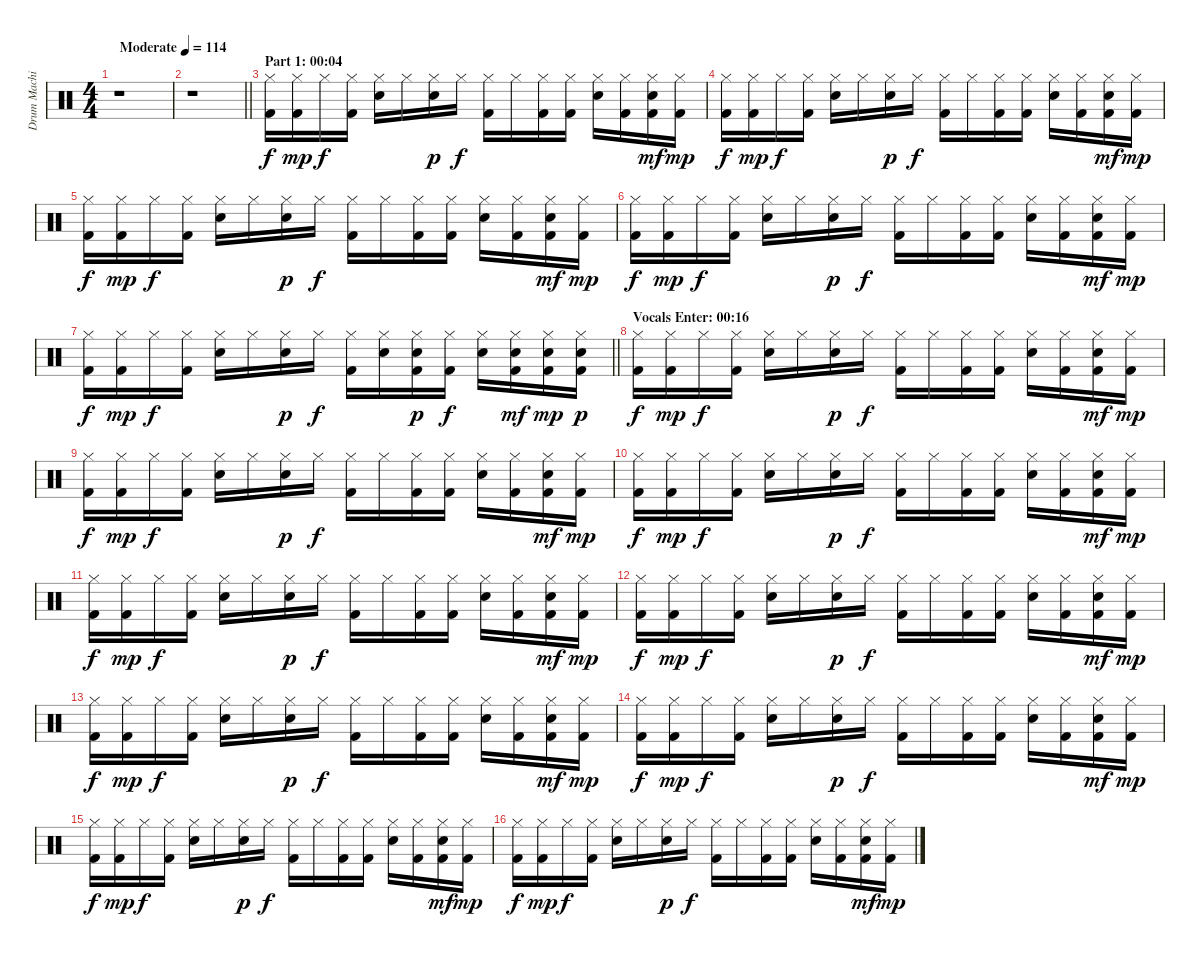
\track ("Drum Machine" "Drum Machi") {instrument percussion}
\staff {score}
\articulation defaults
\ts (4 4)
\tempo (114 "Moderate")
\clef neutral
\ks c
r.1{dy f} |
\barLineRight lightlight
r.1 |
\section ("" "Part 1: 00:04")
("Hi-Hat (closed)" "Kick (hit) 2").16 ("Hi-Hat (closed)" "Kick (hit) 2").16{dy mp} "Hi-Hat (closed)".16{dy f} ("Hi-Hat (closed)" "Kick (hit) 2").16 ("Hi-Hat (closed)" "Electric Snare (hit)").16 "Hi-Hat (closed)".16 ("Hi-Hat (closed)" "Electric Snare (hit)").16{dy p} "Hi-Hat (closed)".16{dy f} ("Hi-Hat (closed)" "Kick (hit) 2").16 "Hi-Hat (closed)".16 ("Hi-Hat (closed)" "Kick (hit) 2").16 ("Hi-Hat (closed)" "Kick (hit) 2").16 ("Hi-Hat (closed)" "Electric Snare (hit)").16 ("Hi-Hat (closed)" "Kick (hit) 2").16 ("Hi-Hat (closed)" "Electric Snare (hit)" "Kick (hit) 2").16{dy mf} ("Hi-Hat (closed)" "Kick (hit) 2").16{dy mp} |
("Hi-Hat (closed)" "Kick (hit) 2").16{dy f} ("Hi-Hat (closed)" "Kick (hit) 2").16{dy mp} "Hi-Hat (closed)".16{dy f} ("Hi-Hat (closed)" "Kick (hit) 2").16 ("Hi-Hat (closed)" "Electric Snare (hit)").16 "Hi-Hat (closed)".16 ("Hi-Hat (closed)" "Electric Snare (hit)").16{dy p} "Hi-Hat (closed)".16{dy f} ("Hi-Hat (closed)" "Kick (hit) 2").16 "Hi-Hat (closed)".16 ("Hi-Hat (closed)" "Kick (hit) 2").16 ("Hi-Hat (closed)" "Kick (hit) 2").16 ("Hi-Hat (closed)" "Electric Snare (hit)").16 ("Hi-Hat (closed)" "Kick (hit) 2").16 ("Hi-Hat (closed)" "Electric Snare (hit)" "Kick (hit) 2").16{dy mf} ("Hi-Hat (closed)" "Kick (hit) 2").16{dy mp} |
("Hi-Hat (closed)" "Kick (hit) 2").16{dy f} ("Hi-Hat (closed)" "Kick (hit) 2").16{dy mp} "Hi-Hat (closed)".16{dy f} ("Hi-Hat (closed)" "Kick (hit) 2").16 ("Hi-Hat (closed)" "Electric Snare (hit)").16 "Hi-Hat (closed)".16 ("Hi-Hat (closed)" "Electric Snare (hit)").16{dy p} "Hi-Hat (closed)".16{dy f} ("Hi-Hat (closed)" "Kick (hit) 2").16 "Hi-Hat (closed)".16 ("Hi-Hat (closed)" "Kick (hit) 2").16 ("Hi-Hat (closed)" "Kick (hit) 2").16 ("Hi-Hat (closed)" "Electric Snare (hit)").16 ("Hi-Hat (closed)" "Kick (hit) 2").16 ("Hi-Hat (closed)" "Electric Snare (hit)" "Kick (hit) 2").16{dy mf} ("Hi-Hat (closed)" "Kick (hit) 2").16{dy mp} |
("Hi-Hat (closed)" "Kick (hit) 2").16{dy f} ("Hi-Hat (closed)" "Kick (hit) 2").16{dy mp} "Hi-Hat (closed)".16{dy f} ("Hi-Hat (closed)" "Kick (hit) 2").16 ("Hi-Hat (closed)" "Electric Snare (hit)").16 "Hi-Hat (closed)".16 ("Hi-Hat (closed)" "Electric Snare (hit)").16{dy p} "Hi-Hat (closed)".16{dy f} ("Hi-Hat (closed)" "Kick (hit) 2").16 "Hi-Hat (closed)".16 ("Hi-Hat (closed)" "Kick (hit) 2").16 ("Hi-Hat (closed)" "Kick (hit) 2").16 ("Hi-Hat (closed)" "Electric Snare (hit)").16 ("Hi-Hat (closed)" "Kick (hit) 2").16 ("Hi-Hat (closed)" "Electric Snare (hit)" "Kick (hit) 2").16{dy mf} ("Hi-Hat (closed)" "Kick (hit) 2").16{dy mp} |
\barLineRight lightlight
("Hi-Hat (closed)" "Kick (hit) 2").16{dy f} ("Hi-Hat (closed)" "Kick (hit) 2").16{dy mp} "Hi-Hat (closed)".16{dy f} ("Hi-Hat (closed)" "Kick (hit) 2").16 ("Hi-Hat (closed)" "Electric Snare (hit)").16 "Hi-Hat (closed)".16 ("Hi-Hat (closed)" "Electric Snare (hit)").16{dy p} "Hi-Hat (closed)".16{dy f} ("Hi-Hat (closed)" "Kick (hit) 2").16 ("Hi-Hat (closed)" "Electric Snare (hit)").16 ("Hi-Hat (closed)" "Electric Snare (hit)" "Kick (hit) 2").16{dy p} ("Hi-Hat (closed)" "Kick (hit) 2").16{dy f} ("Hi-Hat (closed)" "Electric Snare (hit)").16 ("Hi-Hat (closed)" "Electric Snare (hit)" "Kick (hit) 2").16{dy mf} ("Hi-Hat (closed)" "Electric Snare (hit)" "Kick (hit) 2").16{dy mp} ("Hi-Hat (closed)" "Electric Snare (hit)" "Kick (hit) 2").16{dy p} |
\section ("" "Vocals Enter: 00:16")
("Hi-Hat (closed)" "Kick (hit) 2").16{dy f} ("Hi-Hat (closed)" "Kick (hit) 2").16{dy mp} "Hi-Hat (closed)".16{dy f} ("Hi-Hat (closed)" "Kick (hit) 2").16 ("Hi-Hat (closed)" "Electric Snare (hit)").16 "Hi-Hat (closed)".16 ("Hi-Hat (closed)" "Electric Snare (hit)").16{dy p} "Hi-Hat (closed)".16{dy f} ("Hi-Hat (closed)" "Kick (hit) 2").16 "Hi-Hat (closed)".16 ("Hi-Hat (closed)" "Kick (hit) 2").16 ("Hi-Hat (closed)" "Kick (hit) 2").16 ("Hi-Hat (closed)" "Electric Snare (hit)").16 ("Hi-Hat (closed)" "Kick (hit) 2").16 ("Hi-Hat (closed)" "Electric Snare (hit)" "Kick (hit) 2").16{dy mf} ("Hi-Hat (closed)" "Kick (hit) 2").16{dy mp} |
("Hi-Hat (closed)" "Kick (hit) 2").16{dy f} ("Hi-Hat (closed)" "Kick (hit) 2").16{dy mp} "Hi-Hat (closed)".16{dy f} ("Hi-Hat (closed)" "Kick (hit) 2").16 ("Hi-Hat (closed)" "Electric Snare (hit)").16 "Hi-Hat (closed)".16 ("Hi-Hat (closed)" "Electric Snare (hit)").16{dy p} "Hi-Hat (closed)".16{dy f} ("Hi-Hat (closed)" "Kick (hit) 2").16 "Hi-Hat (closed)".16 ("Hi-Hat (closed)" "Kick (hit) 2").16 ("Hi-Hat (closed)" "Kick (hit) 2").16 ("Hi-Hat (closed)" "Electric Snare (hit)").16 ("Hi-Hat (closed)" "Kick (hit) 2").16 ("Hi-Hat (closed)" "Electric Snare (hit)" "Kick (hit) 2").16{dy mf} ("Hi-Hat (closed)" "Kick (hit) 2").16{dy mp} |
("Hi-Hat (closed)" "Kick (hit) 2").16{dy f} ("Hi-Hat (closed)" "Kick (hit) 2").16{dy mp} "Hi-Hat (closed)".16{dy f} ("Hi-Hat (closed)" "Kick (hit) 2").16 ("Hi-Hat (closed)" "Electric Snare (hit)").16 "Hi-Hat (closed)".16 ("Hi-Hat (closed)" "Electric Snare (hit)").16{dy p} "Hi-Hat (closed)".16{dy f} ("Hi-Hat (closed)" "Kick (hit) 2").16 "Hi-Hat (closed)".16 ("Hi-Hat (closed)" "Kick (hit) 2").16 ("Hi-Hat (closed)" "Kick (hit) 2").16 ("Hi-Hat (closed)" "Electric Snare (hit)").16 ("Hi-Hat (closed)" "Kick (hit) 2").16 ("Hi-Hat (closed)" "Electric Snare (hit)" "Kick (hit) 2").16{dy mf} ("Hi-Hat (closed)" "Kick (hit) 2").16{dy mp} |
("Hi-Hat (closed)" "Kick (hit) 2").16{dy f} ("Hi-Hat (closed)" "Kick (hit) 2").16{dy mp} "Hi-Hat (closed)".16{dy f} ("Hi-Hat (closed)" "Kick (hit) 2").16 ("Hi-Hat (closed)" "Electric Snare (hit)").16 "Hi-Hat (closed)".16 ("Hi-Hat (closed)" "Electric Snare (hit)").16{dy p} "Hi-Hat (closed)".16{dy f} ("Hi-Hat (closed)" "Kick (hit) 2").16 "Hi-Hat (closed)".16 ("Hi-Hat (closed)" "Kick (hit) 2").16 ("Hi-Hat (closed)" "Kick (hit) 2").16 ("Hi-Hat (closed)" "Electric Snare (hit)").16 ("Hi-Hat (closed)" "Kick (hit) 2").16 ("Hi-Hat (closed)" "Electric Snare (hit)" "Kick (hit) 2").16{dy mf} ("Hi-Hat (closed)" "Kick (hit) 2").16{dy mp} |
("Hi-Hat (closed)" "Kick (hit) 2").16{dy f} ("Hi-Hat (closed)" "Kick (hit) 2").16{dy mp} "Hi-Hat (closed)".16{dy f} ("Hi-Hat (closed)" "Kick (hit) 2").16 ("Hi-Hat (closed)" "Electric Snare (hit)").16 "Hi-Hat (closed)".16 ("Hi-Hat (closed)" "Electric Snare (hit)").16{dy p} "Hi-Hat (closed)".16{dy f} ("Hi-Hat (closed)" "Kick (hit) 2").16 "Hi-Hat (closed)".16 ("Hi-Hat (closed)" "Kick (hit) 2").16 ("Hi-Hat (closed)" "Kick (hit) 2").16 ("Hi-Hat (closed)" "Electric Snare (hit)").16 ("Hi-Hat (closed)" "Kick (hit) 2").16 ("Hi-Hat (closed)" "Electric Snare (hit)" "Kick (hit) 2").16{dy mf} ("Hi-Hat (closed)" "Kick (hit) 2").16{dy mp} |
("Hi-Hat (closed)" "Kick (hit) 2").16{dy f} ("Hi-Hat (closed)" "Kick (hit) 2").16{dy mp} "Hi-Hat (closed)".16{dy f} ("Hi-Hat (closed)" "Kick (hit) 2").16 ("Hi-Hat (closed)" "Electric Snare (hit)").16 "Hi-Hat (closed)".16 ("Hi-Hat (closed)" "Electric Snare (hit)").16{dy p} "Hi-Hat (closed)".16{dy f} ("Hi-Hat (closed)" "Kick (hit) 2").16 "Hi-Hat (closed)".16 ("Hi-Hat (closed)" "Kick (hit) 2").16 ("Hi-Hat (closed)" "Kick (hit) 2").16 ("Hi-Hat (closed)" "Electric Snare (hit)").16 ("Hi-Hat (closed)" "Kick (hit) 2").16 ("Hi-Hat (closed)" "Electric Snare (hit)" "Kick (hit) 2").16{dy mf} ("Hi-Hat (closed)" "Kick (hit) 2").16{dy mp} |
("Hi-Hat (closed)" "Kick (hit) 2").16{dy f} ("Hi-Hat (closed)" "Kick (hit) 2").16{dy mp} "Hi-Hat (closed)".16{dy f} ("Hi-Hat (closed)" "Kick (hit) 2").16 ("Hi-Hat (closed)" "Electric Snare (hit)").16 "Hi-Hat (closed)".16 ("Hi-Hat (closed)" "Electric Snare (hit)").16{dy p} "Hi-Hat (closed)".16{dy f} ("Hi-Hat (closed)" "Kick (hit) 2").16 "Hi-Hat (closed)".16 ("Hi-Hat (closed)" "Kick (hit) 2").16 ("Hi-Hat (closed)" "Kick (hit) 2").16 ("Hi-Hat (closed)" "Electric Snare (hit)").16 ("Hi-Hat (closed)" "Kick (hit) 2").16 ("Hi-Hat (closed)" "Electric Snare (hit)" "Kick (hit) 2").16{dy mf} ("Hi-Hat (closed)" "Kick (hit) 2").16{dy mp} |
("Hi-Hat (closed)" "Kick (hit) 2").16{dy f} ("Hi-Hat (closed)" "Kick (hit) 2").16{dy mp} "Hi-Hat (closed)".16{dy f} ("Hi-Hat (closed)" "Kick (hit) 2").16 ("Hi-Hat (closed)" "Electric Snare (hit)").16 "Hi-Hat (closed)".16 ("Hi-Hat (closed)" "Electric Snare (hit)").16{dy p} "Hi-Hat (closed)".16{dy f} ("Hi-Hat (closed)" "Kick (hit) 2").16 "Hi-Hat (closed)".16 ("Hi-Hat (closed)" "Kick (hit) 2").16 ("Hi-Hat (closed)" "Kick (hit) 2").16 ("Hi-Hat (closed)" "Electric Snare (hit)").16 ("Hi-Hat (closed)" "Kick (hit) 2").16 ("Hi-Hat (closed)" "Electric Snare (hit)" "Kick (hit) 2").16{dy mf} ("Hi-Hat (closed)" "Kick (hit) 2").16{dy mp} |
("Hi-Hat (closed)" "Kick (hit) 2").16{dy f} ("Hi-Hat (closed)" "Kick (hit) 2").16{dy mp} "Hi-Hat (closed)".16{dy f} ("Hi-Hat (closed)" "Kick (hit) 2").16 ("Hi-Hat (closed)" "Electric Snare (hit)").16 "Hi-Hat (closed)".16 ("Hi-Hat (closed)" "Electric Snare (hit)").16{dy p} "Hi-Hat (closed)".16{dy f} ("Hi-Hat (closed)" "Kick (hit) 2").16 "Hi-Hat (closed)".16 ("Hi-Hat (closed)" "Kick (hit) 2").16 ("Hi-Hat (closed)" "Kick (hit) 2").16 ("Hi-Hat (closed)" "Electric Snare (hit)").16 ("Hi-Hat (closed)" "Kick (hit) 2").16 ("Hi-Hat (closed)" "Electric Snare (hit)" "Kick (hit) 2").16{dy mf} ("Hi-Hat (closed)" "Kick (hit) 2").16{dy mp}
